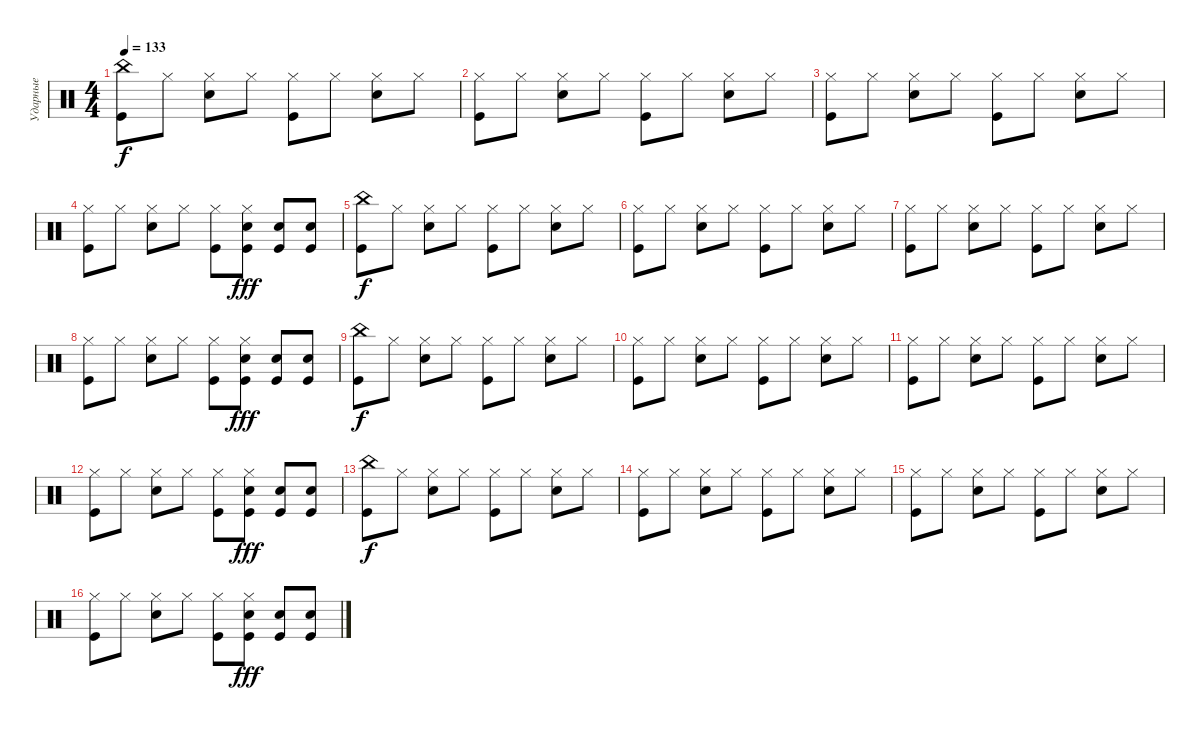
\track ("Ударные" "Ударные") {instrument percussion}
\staff {score}
\articulation defaults
\ts (4 4)
\tempo 133
\clef neutral
\ks c
("China (hit)" "Kick (hit)").8{dy f} "Hi-Hat (closed)".8 ("Hi-Hat (closed)" "Electric Snare (hit)").8 "Hi-Hat (closed)".8 ("Hi-Hat (closed)" "Kick (hit)").8 "Hi-Hat (closed)".8 ("Hi-Hat (closed)" "Electric Snare (hit)").8 "Hi-Hat (closed)".8 |
("Hi-Hat (closed)" "Kick (hit)").8 "Hi-Hat (closed)".8 ("Hi-Hat (closed)" "Electric Snare (hit)").8 "Hi-Hat (closed)".8 ("Hi-Hat (closed)" "Kick (hit)").8 "Hi-Hat (closed)".8 ("Hi-Hat (closed)" "Electric Snare (hit)").8 "Hi-Hat (closed)".8 |
("Hi-Hat (closed)" "Kick (hit)").8 "Hi-Hat (closed)".8 ("Hi-Hat (closed)" "Electric Snare (hit)").8 "Hi-Hat (closed)".8 ("Hi-Hat (closed)" "Kick (hit)").8 "Hi-Hat (closed)".8 ("Hi-Hat (closed)" "Electric Snare (hit)").8 "Hi-Hat (closed)".8 |
("Hi-Hat (closed)" "Kick (hit)").8 "Hi-Hat (closed)".8 ("Hi-Hat (closed)" "Electric Snare (hit)").8 "Hi-Hat (closed)".8 ("Hi-Hat (closed)" "Kick (hit)").8 ("Electric Snare (hit)" "Hi-Hat (closed)" "Kick (hit)").8{dy fff} ("Electric Snare (hit)" "Kick (hit)").8 ("Electric Snare (hit)" "Kick (hit)").8 |
("China (hit)" "Kick (hit)").8{dy f} "Hi-Hat (closed)".8 ("Hi-Hat (closed)" "Electric Snare (hit)").8 "Hi-Hat (closed)".8 ("Hi-Hat (closed)" "Kick (hit)").8 "Hi-Hat (closed)".8 ("Hi-Hat (closed)" "Electric Snare (hit)").8 "Hi-Hat (closed)".8 |
("Hi-Hat (closed)" "Kick (hit)").8 "Hi-Hat (closed)".8 ("Hi-Hat (closed)" "Electric Snare (hit)").8 "Hi-Hat (closed)".8 ("Hi-Hat (closed)" "Kick (hit)").8 "Hi-Hat (closed)".8 ("Hi-Hat (closed)" "Electric Snare (hit)").8 "Hi-Hat (closed)".8 |
("Hi-Hat (closed)" "Kick (hit)").8 "Hi-Hat (closed)".8 ("Hi-Hat (closed)" "Electric Snare (hit)").8 "Hi-Hat (closed)".8 ("Hi-Hat (closed)" "Kick (hit)").8 "Hi-Hat (closed)".8 ("Hi-Hat (closed)" "Electric Snare (hit)").8 "Hi-Hat (closed)".8 |
("Hi-Hat (closed)" "Kick (hit)").8 "Hi-Hat (closed)".8 ("Hi-Hat (closed)" "Electric Snare (hit)").8 "Hi-Hat (closed)".8 ("Hi-Hat (closed)" "Kick (hit)").8 ("Electric Snare (hit)" "Hi-Hat (closed)" "Kick (hit)").8{dy fff} ("Electric Snare (hit)" "Kick (hit)").8 ("Electric Snare (hit)" "Kick (hit)").8 |
("China (hit)" "Kick (hit)").8{dy f} "Hi-Hat (closed)".8 ("Hi-Hat (closed)" "Electric Snare (hit)").8 "Hi-Hat (closed)".8 ("Hi-Hat (closed)" "Kick (hit)").8 "Hi-Hat (closed)".8 ("Hi-Hat (closed)" "Electric Snare (hit)").8 "Hi-Hat (closed)".8 |
("Hi-Hat (closed)" "Kick (hit)").8 "Hi-Hat (closed)".8 ("Hi-Hat (closed)" "Electric Snare (hit)").8 "Hi-Hat (closed)".8 ("Hi-Hat (closed)" "Kick (hit)").8 "Hi-Hat (closed)".8 ("Hi-Hat (closed)" "Electric Snare (hit)").8 "Hi-Hat (closed)".8 |
("Hi-Hat (closed)" "Kick (hit)").8 "Hi-Hat (closed)".8 ("Hi-Hat (closed)" "Electric Snare (hit)").8 "Hi-Hat (closed)".8 ("Hi-Hat (closed)" "Kick (hit)").8 "Hi-Hat (closed)".8 ("Hi-Hat (closed)" "Electric Snare (hit)").8 "Hi-Hat (closed)".8 |
("Hi-Hat (closed)" "Kick (hit)").8 "Hi-Hat (closed)".8 ("Hi-Hat (closed)" "Electric Snare (hit)").8 "Hi-Hat (closed)".8 ("Hi-Hat (closed)" "Kick (hit)").8 ("Electric Snare (hit)" "Hi-Hat (closed)" "Kick (hit)").8{dy fff} ("Electric Snare (hit)" "Kick (hit)").8 ("Electric Snare (hit)" "Kick (hit)").8 |
("China (hit)" "Kick (hit)").8{dy f} "Hi-Hat (closed)".8 ("Hi-Hat (closed)" "Electric Snare (hit)").8 "Hi-Hat (closed)".8 ("Hi-Hat (closed)" "Kick (hit)").8 "Hi-Hat (closed)".8 ("Hi-Hat (closed)" "Electric Snare (hit)").8 "Hi-Hat (closed)".8 |
("Hi-Hat (closed)" "Kick (hit)").8 "Hi-Hat (closed)".8 ("Hi-Hat (closed)" "Electric Snare (hit)").8 "Hi-Hat (closed)".8 ("Hi-Hat (closed)" "Kick (hit)").8 "Hi-Hat (closed)".8 ("Hi-Hat (closed)" "Electric Snare (hit)").8 "Hi-Hat (closed)".8 |
("Hi-Hat (closed)" "Kick (hit)").8 "Hi-Hat (closed)".8 ("Hi-Hat (closed)" "Electric Snare (hit)").8 "Hi-Hat (closed)".8 ("Hi-Hat (closed)" "Kick (hit)").8 "Hi-Hat (closed)".8 ("Hi-Hat (closed)" "Electric Snare (hit)").8 "Hi-Hat (closed)".8 |
("Hi-Hat (closed)" "Kick (hit)").8 "Hi-Hat (closed)".8 ("Hi-Hat (closed)" "Electric Snare (hit)").8 "Hi-Hat (closed)".8 ("Hi-Hat (closed)" "Kick (hit)").8 ("Electric Snare (hit)" "Hi-Hat (closed)" "Kick (hit)").8{dy fff} ("Electric Snare (hit)" "Kick (hit)").8 ("Electric Snare (hit)" "Kick (hit)").8
